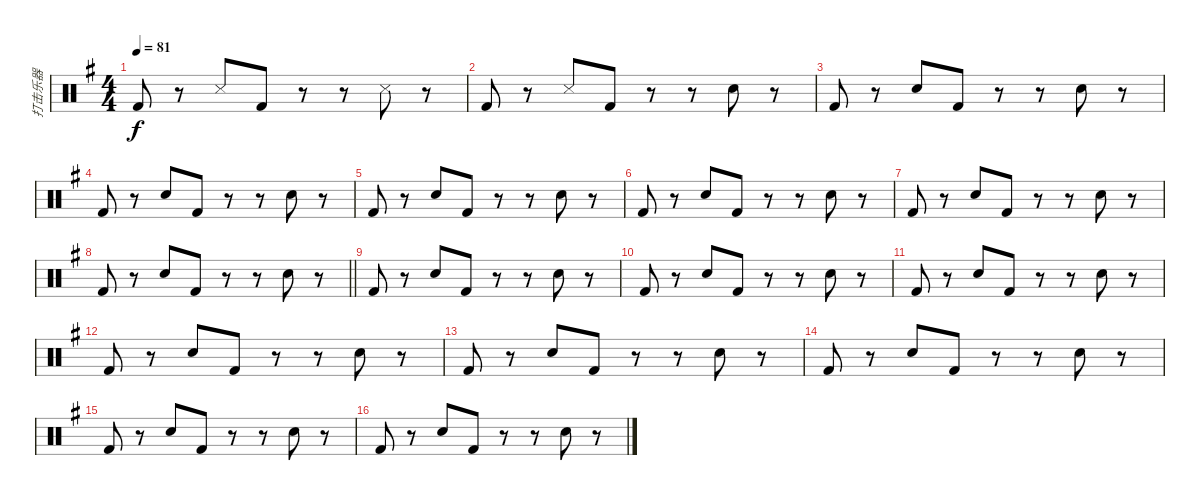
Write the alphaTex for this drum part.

\track ("打击乐器" "打击乐器") {instrument percussion}
\staff {score}
\articulation defaults
\ts (4 4)
\tempo 81
\clef neutral
\ks g "Kick (hit) 2".8{dy f}
r.8 "Metronome (hit)".8 "Kick (hit) 2".8 r.8 r.8 "Metronome (hit)".8 r.8 |
"Kick (hit) 2".8 r.8 "Metronome (hit)".8 "Kick (hit) 2".8 r.8 r.8 "Electric Snare (hit)".8 r.8 |
"Kick (hit) 2".8 r.8 "Electric Snare (hit)".8 "Kick (hit) 2".8 r.8 r.8 "Electric Snare (hit)".8 r.8 |
"Kick (hit) 2".8 r.8 "Electric Snare (hit)".8 "Kick (hit) 2".8 r.8 r.8 "Electric Snare (hit)".8 r.8 |
"Kick (hit) 2".8 r.8 "Electric Snare (hit)".8 "Kick (hit) 2".8 r.8 r.8 "Electric Snare (hit)".8 r.8 |
"Kick (hit) 2".8 r.8 "Electric Snare (hit)".8 "Kick (hit) 2".8 r.8 r.8 "Electric Snare (hit)".8 r.8 |
"Kick (hit) 2".8 r.8 "Electric Snare (hit)".8 "Kick (hit) 2".8 r.8 r.8 "Electric Snare (hit)".8 r.8 |
\barLineRight lightlight "Kick (hit) 2".8
r.8 "Electric Snare (hit)".8 "Kick (hit) 2".8 r.8 r.8 "Electric Snare (hit)".8 r.8 |
"Kick (hit) 2".8 r.8 "Electric Snare (hit)".8 "Kick (hit) 2".8 r.8 r.8 "Electric Snare (hit)".8 r.8 |
"Kick (hit) 2".8 r.8 "Electric Snare (hit)".8 "Kick (hit) 2".8 r.8 r.8 "Electric Snare (hit)".8 r.8 |
"Kick (hit) 2".8 r.8 "Electric Snare (hit)".8 "Kick (hit) 2".8 r.8 r.8 "Electric Snare (hit)".8 r.8 |
"Kick (hit) 2".8 r.8 "Electric Snare (hit)".8 "Kick (hit) 2".8 r.8 r.8 "Electric Snare (hit)".8 r.8 |
"Kick (hit) 2".8 r.8 "Electric Snare (hit)".8 "Kick (hit) 2".8 r.8 r.8 "Electric Snare (hit)".8 r.8 |
"Kick (hit) 2".8 r.8 "Electric Snare (hit)".8 "Kick (hit) 2".8 r.8 r.8 "Electric Snare (hit)".8 r.8 |
"Kick (hit) 2".8 r.8 "Electric Snare (hit)".8 "Kick (hit) 2".8 r.8 r.8 "Electric Snare (hit)".8 r.8 |
"Kick (hit) 2".8 r.8 "Electric Snare (hit)".8 "Kick (hit) 2".8 r.8 r.8 "Electric Snare (hit)".8 r.8
